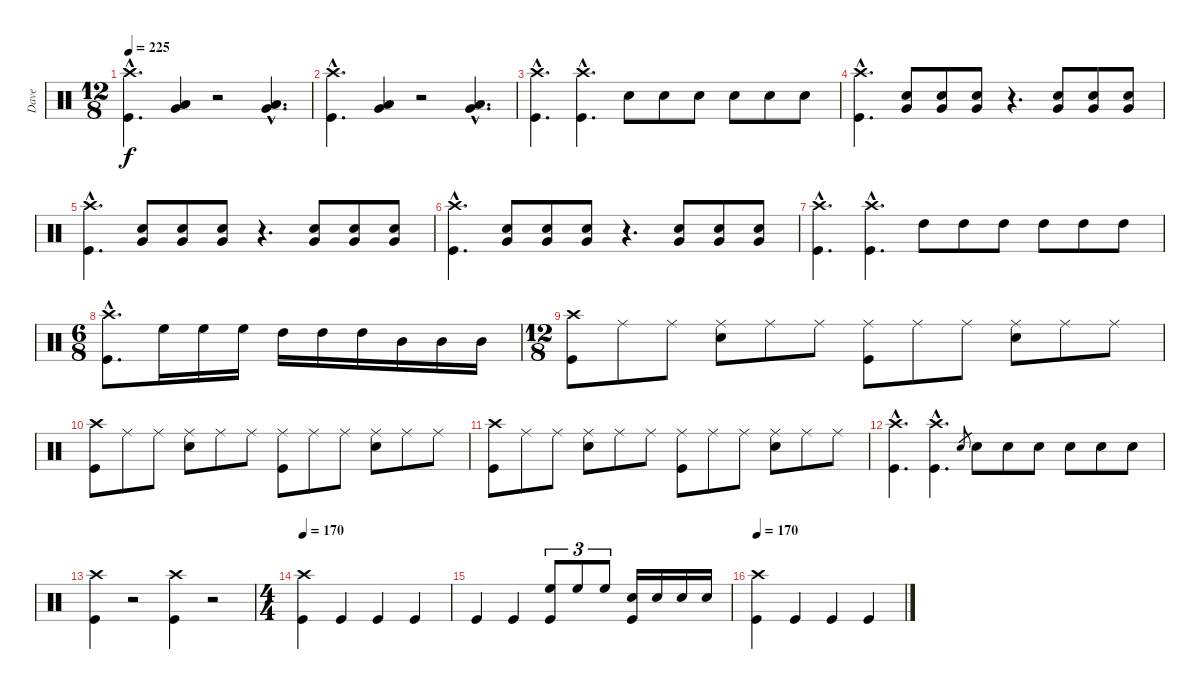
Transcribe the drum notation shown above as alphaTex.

\track ("Dave" "Dave") {instrument percussion}
\staff {score}
\articulation defaults
\ts (12 8)
\tempo 225
\clef neutral
\ks c
("Crash high (hit)"{hac} "Kick (hit)"{hac}).4{d dy f} ("Very Low Tom (hit)" "Low Floor Tom (hit)").4 r.2 ("Very Low Tom (hit)"{hac} "Low Floor Tom (hit)"{hac}).4{d} |
("Crash high (hit)"{hac} "Kick (hit)"{hac}).4{d} ("Very Low Tom (hit)" "Low Floor Tom (hit)").4 r.2 ("Very Low Tom (hit)"{hac} "Low Floor Tom (hit)"{hac}).4{d} |
("Crash high (hit)"{hac} "Kick (hit)"{hac}).4{d} ("Crash high (hit)"{hac} "Kick (hit)"{hac}).4{d} "Snare (hit) 2".8 "Snare (hit) 2".8 "Snare (hit) 2".8 "Snare (hit) 2".8 "Snare (hit) 2".8 "Snare (hit) 2".8 |
("Crash high (hit)"{hac} "Kick (hit)"{hac}).4{d} ("Snare (hit) 2" "Very Low Tom (hit)").8 ("Snare (hit) 2" "Very Low Tom (hit)").8 ("Snare (hit) 2" "Very Low Tom (hit)").8 r.4{d} ("Snare (hit) 2" "Very Low Tom (hit)").8 ("Snare (hit) 2" "Very Low Tom (hit)").8 ("Snare (hit) 2" "Very Low Tom (hit)").8 |
("Crash high (hit)"{hac} "Kick (hit)"{hac}).4{d} ("Snare (hit) 2" "Very Low Tom (hit)").8 ("Snare (hit) 2" "Very Low Tom (hit)").8 ("Snare (hit) 2" "Very Low Tom (hit)").8 r.4{d} ("Snare (hit) 2" "Very Low Tom (hit)").8 ("Snare (hit) 2" "Very Low Tom (hit)").8 ("Snare (hit) 2" "Very Low Tom (hit)").8 |
("Crash high (hit)"{hac} "Kick (hit)"{hac}).4{d} ("Snare (hit) 2" "Very Low Tom (hit)").8 ("Snare (hit) 2" "Very Low Tom (hit)").8 ("Snare (hit) 2" "Very Low Tom (hit)").8 r.4{d} ("Snare (hit) 2" "Very Low Tom (hit)").8 ("Snare (hit) 2" "Very Low Tom (hit)").8 ("Snare (hit) 2" "Very Low Tom (hit)").8 |
("Crash high (hit)"{hac} "Kick (hit)"{hac}).4{d} ("Crash high (hit)"{hac} "Kick (hit)"{hac}).4{d} "High Tom (hit)".8 "High Tom (hit)".8 "High Tom (hit)".8 "High Tom (hit)".8 "High Tom (hit)".8 "High Tom (hit)".8 |
\ts (6 8)
("Crash high (hit)"{hac} "Kick (hit)"{hac}).8{d} "High Floor Tom (hit)".16 "High Floor Tom (hit)".16 "High Floor Tom (hit)".16 "High Tom (hit)".16 "High Tom (hit)".16 "High Tom (hit)".16 "Mid Tom (hit)".16 "Mid Tom (hit)".16 "Mid Tom (hit)".16 |
\ts (12 8)
("Crash high (hit)" "Kick (hit)").8 "Ride (middle)".8 "Ride (middle)".8 ("Ride (middle)" "Snare (hit) 2").8 "Ride (middle)".8 "Ride (middle)".8 ("Ride (middle)" "Kick (hit)").8 "Ride (middle)".8 "Ride (middle)".8 ("Ride (middle)" "Snare (hit) 2").8 "Ride (middle)".8 "Ride (middle)".8 |
("Crash high (hit)" "Kick (hit)").8 "Ride (middle)".8 "Ride (middle)".8 ("Ride (middle)" "Snare (hit) 2").8 "Ride (middle)".8 "Ride (middle)".8 ("Ride (middle)" "Kick (hit)").8 "Ride (middle)".8 "Ride (middle)".8 ("Ride (middle)" "Snare (hit) 2").8 "Ride (middle)".8 "Ride (middle)".8 |
("Crash high (hit)" "Kick (hit)").8 "Ride (middle)".8 "Ride (middle)".8 ("Ride (middle)" "Snare (hit) 2").8 "Ride (middle)".8 "Ride (middle)".8 ("Ride (middle)" "Kick (hit)").8 "Ride (middle)".8 "Ride (middle)".8 ("Ride (middle)" "Snare (hit) 2").8 "Ride (middle)".8 "Ride (middle)".8 |
("Crash high (hit)"{hac} "Kick (hit)"{hac}).4{d} ("Crash high (hit)"{hac} "Kick (hit)"{hac}).4{d} "Snare (hit) 2".8{gr} "Snare (hit) 2".8 "Snare (hit) 2".8 "Snare (hit) 2".8 "Snare (hit) 2".8 "Snare (hit) 2".8 "Snare (hit) 2".8 |
("Crash high (hit)" "Kick (hit)").4{volume 16} r.2{volume 0} ("Crash high (hit)" "Kick (hit)").4{volume 16} r.2{volume 0} |
\ts (4 4)
\tempo 170
("Crash high (hit)" "Kick (hit)").4{volume 16} "Kick (hit)".4 "Kick (hit)".4 "Kick (hit)".4 |
"Kick (hit)".4 "Kick (hit)".4 ("High Floor Tom (hit)" "Kick (hit)").8{tu (3 2)} "High Floor Tom (hit)".8{tu (3 2)} "High Floor Tom (hit)".8{tu (3 2)} ("Snare (hit) 2" "Kick (hit)").16 "Snare (hit) 2".16 "Snare (hit) 2".16 "Snare (hit) 2".16 |
\tempo 170
("Crash high (hit)" "Kick (hit)").4 "Kick (hit)".4 "Kick (hit)".4 "Kick (hit)".4
